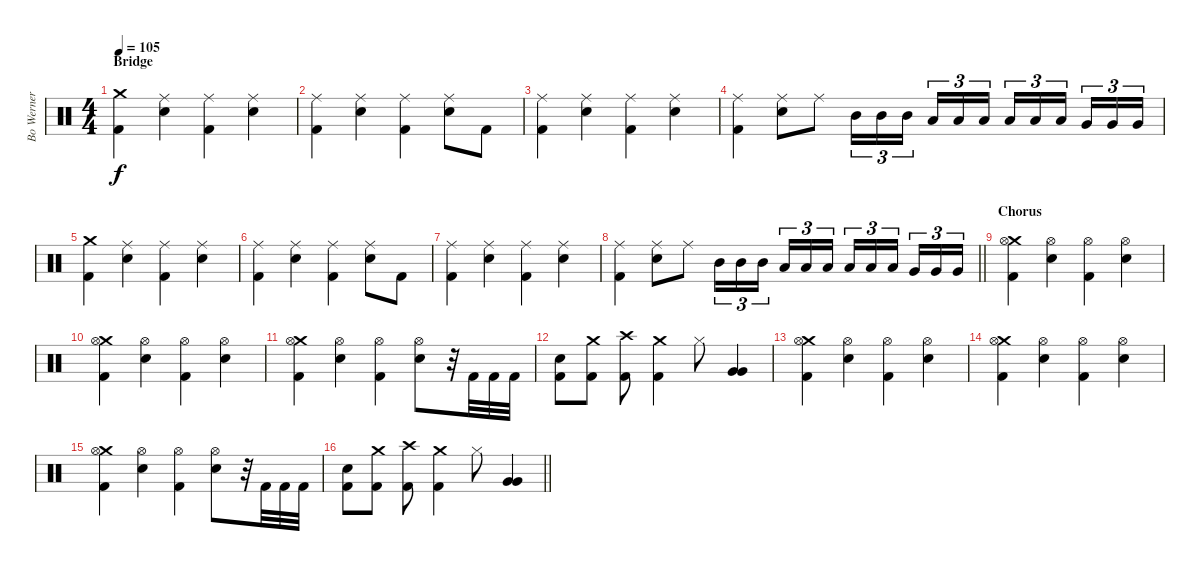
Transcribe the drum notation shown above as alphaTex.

\track ("Bo Werner" "Bo Werner") {instrument percussion}
\staff {score}
\articulation defaults
\ts (4 4)
\section ("" "Bridge")
\tempo 105
\clef neutral
\ks c
("Crash medium (hit)" "Kick (hit) 2").4{dy f} ("Ride (middle)" "Snare (hit) 2").4 ("Ride (middle)" "Kick (hit) 2").4 ("Ride (middle)" "Snare (hit) 2").4 |
("Ride (middle)" "Kick (hit) 2").4 ("Ride (middle)" "Snare (hit) 2").4 ("Ride (middle)" "Kick (hit) 2").4 ("Ride (middle)" "Snare (hit) 2").8 "Kick (hit) 2".8 |
("Ride (middle)" "Kick (hit) 2").4 ("Ride (middle)" "Snare (hit) 2").4 ("Ride (middle)" "Kick (hit) 2").4 ("Ride (middle)" "Snare (hit) 2").4 |
("Ride (middle)" "Kick (hit) 2").4 ("Ride (middle)" "Snare (hit) 2").8 "Ride (middle)".8 "Mid Tom (hit)".16{tu (3 2)} "Mid Tom (hit)".16{tu (3 2)} "Mid Tom (hit)".16{tu (3 2) beam splitsecondary} "Low Tom (hit)".16{tu (3 2)} "Low Tom (hit)".16{tu (3 2)} "Low Tom (hit)".16{tu (3 2)} "Low Floor Tom (hit)".16{tu (3 2)} "Low Floor Tom (hit)".16{tu (3 2)} "Low Floor Tom (hit)".16{tu (3 2) beam splitsecondary} "Very Low Tom (hit)".16{tu (3 2)} "Very Low Tom (hit)".16{tu (3 2)} "Very Low Tom (hit)".16{tu (3 2)} |
("Crash medium (hit)" "Kick (hit) 2").4 ("Ride (middle)" "Snare (hit) 2").4 ("Ride (middle)" "Kick (hit) 2").4 ("Ride (middle)" "Snare (hit) 2").4 |
("Ride (middle)" "Kick (hit) 2").4 ("Ride (middle)" "Snare (hit) 2").4 ("Ride (middle)" "Kick (hit) 2").4 ("Ride (middle)" "Snare (hit) 2").8 "Kick (hit) 2".8 |
("Ride (middle)" "Kick (hit) 2").4 ("Ride (middle)" "Snare (hit) 2").4 ("Ride (middle)" "Kick (hit) 2").4 ("Ride (middle)" "Snare (hit) 2").4 |
\barLineRight lightlight
("Ride (middle)" "Kick (hit) 2").4 ("Ride (middle)" "Snare (hit) 2").8 "Ride (middle)".8 "Mid Tom (hit)".16{tu (3 2)} "Mid Tom (hit)".16{tu (3 2)} "Mid Tom (hit)".16{tu (3 2) beam splitsecondary} "Low Tom (hit)".16{tu (3 2)} "Low Tom (hit)".16{tu (3 2)} "Low Tom (hit)".16{tu (3 2)} "Low Floor Tom (hit)".16{tu (3 2)} "Low Floor Tom (hit)".16{tu (3 2)} "Low Floor Tom (hit)".16{tu (3 2) beam splitsecondary} "Very Low Tom (hit)".16{tu (3 2)} "Very Low Tom (hit)".16{tu (3 2)} "Very Low Tom (hit)".16{tu (3 2)} |
\section ("" "Chorus")
("Crash medium (hit)" "Hi-Hat (open)" "Kick (hit) 2").4 ("Hi-Hat (open)" "Snare (hit) 2").4 ("Hi-Hat (open)" "Kick (hit) 2").4 ("Hi-Hat (open)" "Snare (hit) 2").4 |
("Crash medium (hit)" "Hi-Hat (open)" "Kick (hit) 2").4 ("Hi-Hat (open)" "Snare (hit) 2").4 ("Hi-Hat (open)" "Kick (hit) 2").4 ("Hi-Hat (open)" "Snare (hit) 2").4 |
("Crash medium (hit)" "Hi-Hat (open)" "Kick (hit) 2").4 ("Hi-Hat (open)" "Snare (hit) 2").4 ("Hi-Hat (open)" "Kick (hit) 2").4 ("Hi-Hat (open)" "Snare (hit) 2").8 r.32 "Kick (hit) 2".32 "Kick (hit) 2".32 "Kick (hit) 2".32 |
("Snare (hit) 2" "Kick (hit) 2").8 ("Crash medium (hit)" "Kick (hit) 2").8 ("Crash high (hit)" "Kick (hit) 2").8 ("Crash medium (hit)" "Kick (hit) 2").4 "Hi-Hat (closed)".8 ("Very Low Tom (hit)" "Very Low Tom (hit)").4 |
("Crash medium (hit)" "Hi-Hat (open)" "Kick (hit) 2").4 ("Hi-Hat (open)" "Snare (hit) 2").4 ("Hi-Hat (open)" "Kick (hit) 2").4 ("Hi-Hat (open)" "Snare (hit) 2").4 |
("Crash medium (hit)" "Hi-Hat (open)" "Kick (hit) 2").4 ("Hi-Hat (open)" "Snare (hit) 2").4 ("Hi-Hat (open)" "Kick (hit) 2").4 ("Hi-Hat (open)" "Snare (hit) 2").4 |
("Crash medium (hit)" "Hi-Hat (open)" "Kick (hit) 2").4 ("Hi-Hat (open)" "Snare (hit) 2").4 ("Hi-Hat (open)" "Kick (hit) 2").4 ("Hi-Hat (open)" "Snare (hit) 2").8 r.32 "Kick (hit) 2".32 "Kick (hit) 2".32 "Kick (hit) 2".32 |
\barLineRight lightlight
("Snare (hit) 2" "Kick (hit) 2").8 ("Crash medium (hit)" "Kick (hit) 2").8 ("Crash high (hit)" "Kick (hit) 2").8 ("Crash medium (hit)" "Kick (hit) 2").4 "Hi-Hat (closed)".8 ("Very Low Tom (hit)" "Very Low Tom (hit)").4
